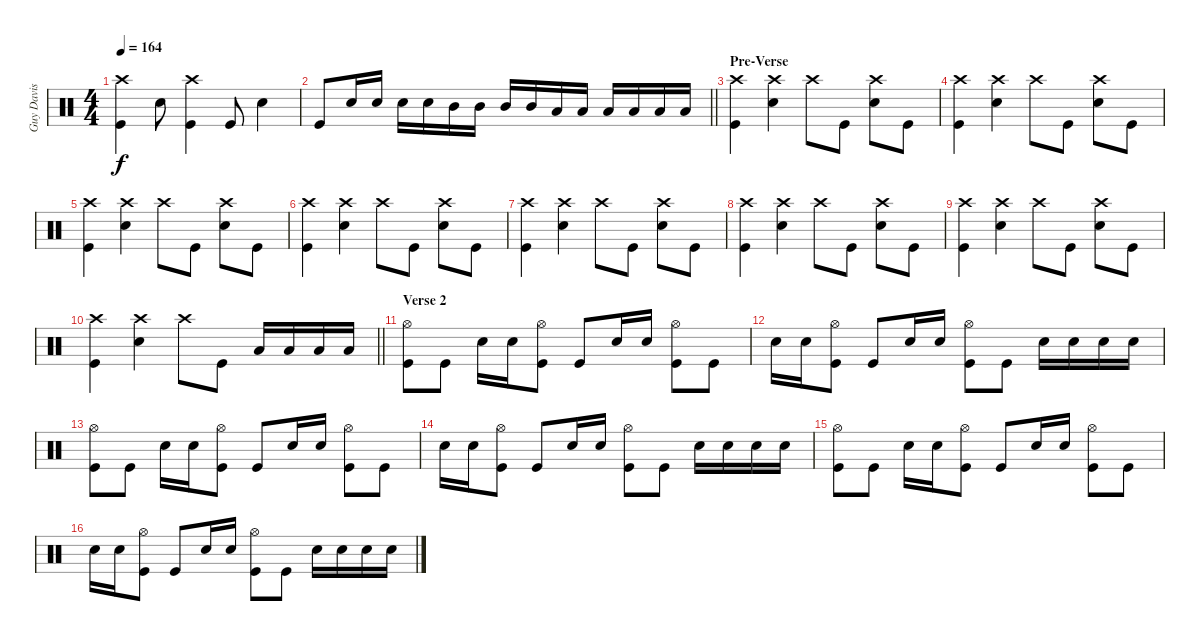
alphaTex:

\track ("Guy Davis" "Guy Davis") {instrument percussion}
\staff {score}
\articulation defaults
\ts (4 4)
\tempo 164
\clef neutral
\ks c
("Crash high (hit)" "Kick (hit)").4{dy f} "Snare (hit) 2".8 ("Crash high (hit)" "Kick (hit)").4 "Kick (hit)".8 "Snare (hit) 2".4 |
\barLineRight lightlight "Kick (hit)".8 "Snare (hit) 2".16 "Snare (hit) 2".16 "Snare (hit) 2".16 "Snare (hit) 2".16 "Mid Tom (hit)".16 "Mid Tom (hit)".16 "Mid Tom (hit)".16 "Mid Tom (hit)".16 "Low Tom (hit)".16 "Low Tom (hit)".16 "Low Tom (hit)".16 "Low Tom (hit)".16 "Low Tom (hit)".16 "Low Tom (hit)".16
|
\section ("" "Pre-Verse")
("Crash high (hit)" "Kick (hit)").4 ("Snare (hit) 2" "Crash high (hit)").4 "Crash high (hit)".8 "Kick (hit)".8 ("Snare (hit) 2" "Crash high (hit)").8 "Kick (hit)".8 |
("Crash high (hit)" "Kick (hit)").4 ("Snare (hit) 2" "Crash high (hit)").4 "Crash high (hit)".8 "Kick (hit)".8 ("Snare (hit) 2" "Crash high (hit)").8 "Kick (hit)".8 |
("Crash high (hit)" "Kick (hit)").4 ("Snare (hit) 2" "Crash high (hit)").4 "Crash high (hit)".8 "Kick (hit)".8 ("Snare (hit) 2" "Crash high (hit)").8 "Kick (hit)".8 |
("Crash high (hit)" "Kick (hit)").4 ("Snare (hit) 2" "Crash high (hit)").4 "Crash high (hit)".8 "Kick (hit)".8 ("Snare (hit) 2" "Crash high (hit)").8 "Kick (hit)".8 |
("Crash high (hit)" "Kick (hit)").4 ("Snare (hit) 2" "Crash high (hit)").4 "Crash high (hit)".8 "Kick (hit)".8 ("Snare (hit) 2" "Crash high (hit)").8 "Kick (hit)".8 |
("Crash high (hit)" "Kick (hit)").4 ("Snare (hit) 2" "Crash high (hit)").4 "Crash high (hit)".8 "Kick (hit)".8 ("Snare (hit) 2" "Crash high (hit)").8 "Kick (hit)".8 |
("Crash high (hit)" "Kick (hit)").4 ("Snare (hit) 2" "Crash high (hit)").4 "Crash high (hit)".8 "Kick (hit)".8 ("Snare (hit) 2" "Crash high (hit)").8 "Kick (hit)".8 |
\barLineRight lightlight
("Crash high (hit)" "Kick (hit)").4 ("Snare (hit) 2" "Crash high (hit)").4 "Crash high (hit)".8 "Kick (hit)".8 "Low Tom (hit)".16 "Low Tom (hit)".16 "Low Tom (hit)".16 "Low Tom (hit)".16 |
\section ("" "Verse 2")
("Hi-Hat (open)" "Kick (hit)").8 "Kick (hit)".8 "Snare (hit) 2".16 "Snare (hit) 2".16 ("Hi-Hat (open)" "Kick (hit)").8 "Kick (hit)".8 "Snare (hit) 2".16 "Snare (hit) 2".16 ("Hi-Hat (open)" "Kick (hit)").8 "Kick (hit)".8 |
"Snare (hit) 2".16 "Snare (hit) 2".16 ("Hi-Hat (open)" "Kick (hit)").8 "Kick (hit)".8 "Snare (hit) 2".16 "Snare (hit) 2".16 ("Hi-Hat (open)" "Kick (hit)").8 "Kick (hit)".8 "Snare (hit) 2".16 "Snare (hit) 2".16 "Snare (hit) 2".16 "Snare (hit) 2".16 |
("Hi-Hat (open)" "Kick (hit)").8 "Kick (hit)".8 "Snare (hit) 2".16 "Snare (hit) 2".16 ("Hi-Hat (open)" "Kick (hit)").8 "Kick (hit)".8 "Snare (hit) 2".16 "Snare (hit) 2".16 ("Hi-Hat (open)" "Kick (hit)").8 "Kick (hit)".8 |
"Snare (hit) 2".16 "Snare (hit) 2".16 ("Hi-Hat (open)" "Kick (hit)").8 "Kick (hit)".8 "Snare (hit) 2".16 "Snare (hit) 2".16 ("Hi-Hat (open)" "Kick (hit)").8 "Kick (hit)".8 "Snare (hit) 2".16 "Snare (hit) 2".16 "Snare (hit) 2".16 "Snare (hit) 2".16 |
("Hi-Hat (open)" "Kick (hit)").8 "Kick (hit)".8 "Snare (hit) 2".16 "Snare (hit) 2".16 ("Hi-Hat (open)" "Kick (hit)").8 "Kick (hit)".8 "Snare (hit) 2".16 "Snare (hit) 2".16 ("Hi-Hat (open)" "Kick (hit)").8 "Kick (hit)".8 |
"Snare (hit) 2".16 "Snare (hit) 2".16 ("Hi-Hat (open)" "Kick (hit)").8 "Kick (hit)".8 "Snare (hit) 2".16 "Snare (hit) 2".16 ("Hi-Hat (open)" "Kick (hit)").8 "Kick (hit)".8 "Snare (hit) 2".16 "Snare (hit) 2".16 "Snare (hit) 2".16 "Snare (hit) 2".16
